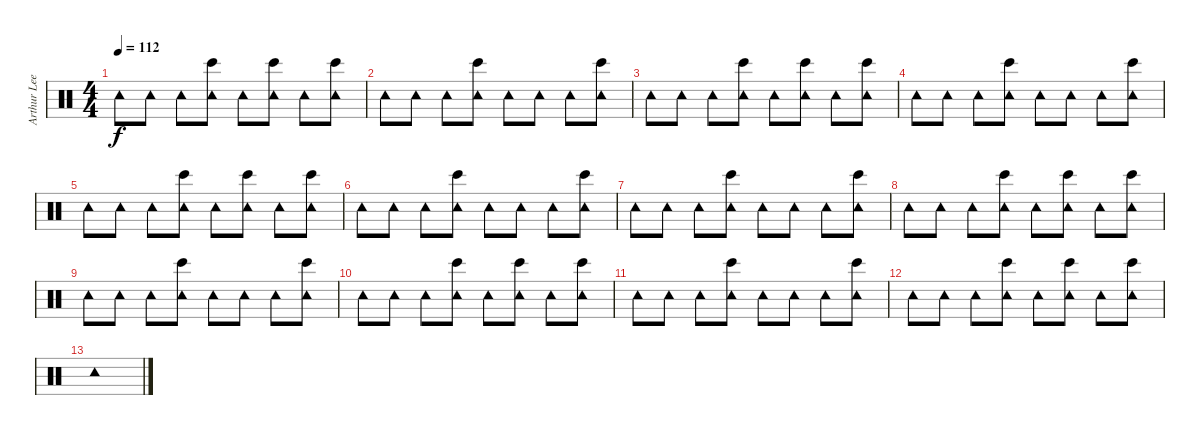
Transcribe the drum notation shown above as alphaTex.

\track ("Arthur Lee (percussion)" "Arthur Lee") {instrument percussion}
\staff {score}
\articulation defaults
\ts (4 4)
\tempo 112
\clef neutral
\ks c "Tambourine (hit)".8{dy f} "Tambourine (hit)".8 "Tambourine (hit)".8
("Tambourine (hit)" "Bongo High (hit)").8 "Tambourine (hit)".8 ("Tambourine (hit)" "Bongo High (hit)").8 "Tambourine (hit)".8 ("Tambourine (hit)" "Bongo High (hit)").8 |
"Tambourine (hit)".8 "Tambourine (hit)".8 "Tambourine (hit)".8 ("Tambourine (hit)" "Bongo High (hit)").8 "Tambourine (hit)".8 "Tambourine (hit)".8 "Tambourine (hit)".8 ("Tambourine (hit)" "Bongo High (hit)").8 |
"Tambourine (hit)".8 "Tambourine (hit)".8 "Tambourine (hit)".8 ("Tambourine (hit)" "Bongo High (hit)").8 "Tambourine (hit)".8 ("Tambourine (hit)" "Bongo High (hit)").8 "Tambourine (hit)".8 ("Tambourine (hit)" "Bongo High (hit)").8 |
"Tambourine (hit)".8 "Tambourine (hit)".8 "Tambourine (hit)".8 ("Tambourine (hit)" "Bongo High (hit)").8 "Tambourine (hit)".8 "Tambourine (hit)".8 "Tambourine (hit)".8 ("Tambourine (hit)" "Bongo High (hit)").8 |
"Tambourine (hit)".8 "Tambourine (hit)".8 "Tambourine (hit)".8 ("Tambourine (hit)" "Bongo High (hit)").8 "Tambourine (hit)".8 ("Tambourine (hit)" "Bongo High (hit)").8 "Tambourine (hit)".8 ("Tambourine (hit)" "Bongo High (hit)").8 |
"Tambourine (hit)".8 "Tambourine (hit)".8 "Tambourine (hit)".8 ("Tambourine (hit)" "Bongo High (hit)").8 "Tambourine (hit)".8 "Tambourine (hit)".8 "Tambourine (hit)".8 ("Tambourine (hit)" "Bongo High (hit)").8 |
"Tambourine (hit)".8 "Tambourine (hit)".8 "Tambourine (hit)".8 ("Tambourine (hit)" "Bongo High (hit)").8 "Tambourine (hit)".8 "Tambourine (hit)".8 "Tambourine (hit)".8 ("Tambourine (hit)" "Bongo High (hit)").8 |
"Tambourine (hit)".8 "Tambourine (hit)".8 "Tambourine (hit)".8 ("Tambourine (hit)" "Bongo High (hit)").8 "Tambourine (hit)".8 ("Tambourine (hit)" "Bongo High (hit)").8 "Tambourine (hit)".8 ("Tambourine (hit)" "Bongo High (hit)").8 |
"Tambourine (hit)".8 "Tambourine (hit)".8 "Tambourine (hit)".8 ("Tambourine (hit)" "Bongo High (hit)").8 "Tambourine (hit)".8 "Tambourine (hit)".8 "Tambourine (hit)".8 ("Tambourine (hit)" "Bongo High (hit)").8 |
"Tambourine (hit)".8 "Tambourine (hit)".8 "Tambourine (hit)".8 ("Tambourine (hit)" "Bongo High (hit)").8 "Tambourine (hit)".8 ("Tambourine (hit)" "Bongo High (hit)").8 "Tambourine (hit)".8 ("Tambourine (hit)" "Bongo High (hit)").8 |
"Tambourine (hit)".8 "Tambourine (hit)".8 "Tambourine (hit)".8 ("Tambourine (hit)" "Bongo High (hit)").8 "Tambourine (hit)".8 "Tambourine (hit)".8 "Tambourine (hit)".8 ("Tambourine (hit)" "Bongo High (hit)").8 |
"Tambourine (hit)".8 "Tambourine (hit)".8 "Tambourine (hit)".8 ("Tambourine (hit)" "Bongo High (hit)").8 "Tambourine (hit)".8 ("Tambourine (hit)" "Bongo High (hit)").8 "Tambourine (hit)".8 ("Tambourine (hit)" "Bongo High (hit)").8 |
"Tambourine (hit)".1
